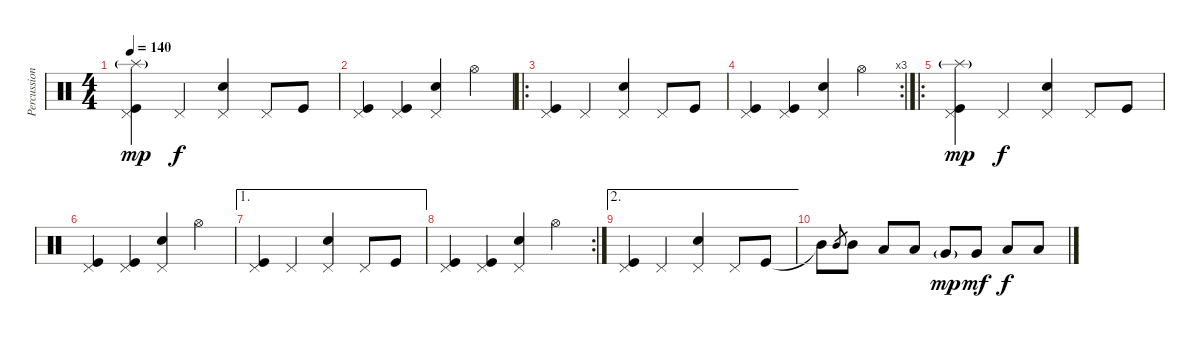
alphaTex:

\track ("Percussion" "Percussion") {instrument percussion}
\staff {score}
\articulation defaults
\ts (4 4)
\tempo 140
\clef neutral
\ks c
("Splash (hit)"{g} "Kick (hit)" "Pedal Hi-Hat (hit)").4{dy mp} "Pedal Hi-Hat (hit)".4{dy f} ("Electric Snare (hit)" "Pedal Hi-Hat (hit)").4 "Pedal Hi-Hat (hit)".8 "Kick (hit)".8 |
("Kick (hit)" "Pedal Hi-Hat (hit)").4 ("Kick (hit)" "Pedal Hi-Hat (hit)").4 ("Electric Snare (hit)" "Pedal Hi-Hat (hit)").4 "Hi-Hat (open)".4 |
\ro
("Kick (hit)" "Pedal Hi-Hat (hit)").4 "Pedal Hi-Hat (hit)".4 ("Electric Snare (hit)" "Pedal Hi-Hat (hit)").4 "Pedal Hi-Hat (hit)".8 "Kick (hit)".8 |
\rc 3
("Kick (hit)" "Pedal Hi-Hat (hit)").4 ("Kick (hit)" "Pedal Hi-Hat (hit)").4 ("Electric Snare (hit)" "Pedal Hi-Hat (hit)").4 "Hi-Hat (open)".4 |
\ro
("Splash (hit)"{g} "Kick (hit)" "Pedal Hi-Hat (hit)").4{dy mp} "Pedal Hi-Hat (hit)".4{dy f} ("Electric Snare (hit)" "Pedal Hi-Hat (hit)").4 "Pedal Hi-Hat (hit)".8 "Kick (hit)".8 |
("Kick (hit)" "Pedal Hi-Hat (hit)").4 ("Kick (hit)" "Pedal Hi-Hat (hit)").4 ("Electric Snare (hit)" "Pedal Hi-Hat (hit)").4 "Hi-Hat (open)".4 |
\ae 1
("Kick (hit)" "Pedal Hi-Hat (hit)").4 "Pedal Hi-Hat (hit)".4 ("Electric Snare (hit)" "Pedal Hi-Hat (hit)").4 "Pedal Hi-Hat (hit)".8 "Kick (hit)".8 |
\rc 2
("Kick (hit)" "Pedal Hi-Hat (hit)").4 ("Kick (hit)" "Pedal Hi-Hat (hit)").4 ("Electric Snare (hit)" "Pedal Hi-Hat (hit)").4 "Hi-Hat (open)".4 |
\ae 2
("Kick (hit)" "Pedal Hi-Hat (hit)").4 "Pedal Hi-Hat (hit)".4 ("Electric Snare (hit)" "Pedal Hi-Hat (hit)").4 "Pedal Hi-Hat (hit)".8 "Kick (hit)".8 |
"Mid Tom (hit)"{t}.8 "Mid Tom (hit)".8{gr} "Mid Tom (hit)".8 "Low Tom (hit)".8 "Low Tom (hit)".8 "Very Low Tom (hit)"{g}.8{dy mp} "Very Low Tom (hit)".8{dy mf} "Low Floor Tom (hit)".8{dy f} "Low Floor Tom (hit)".8
